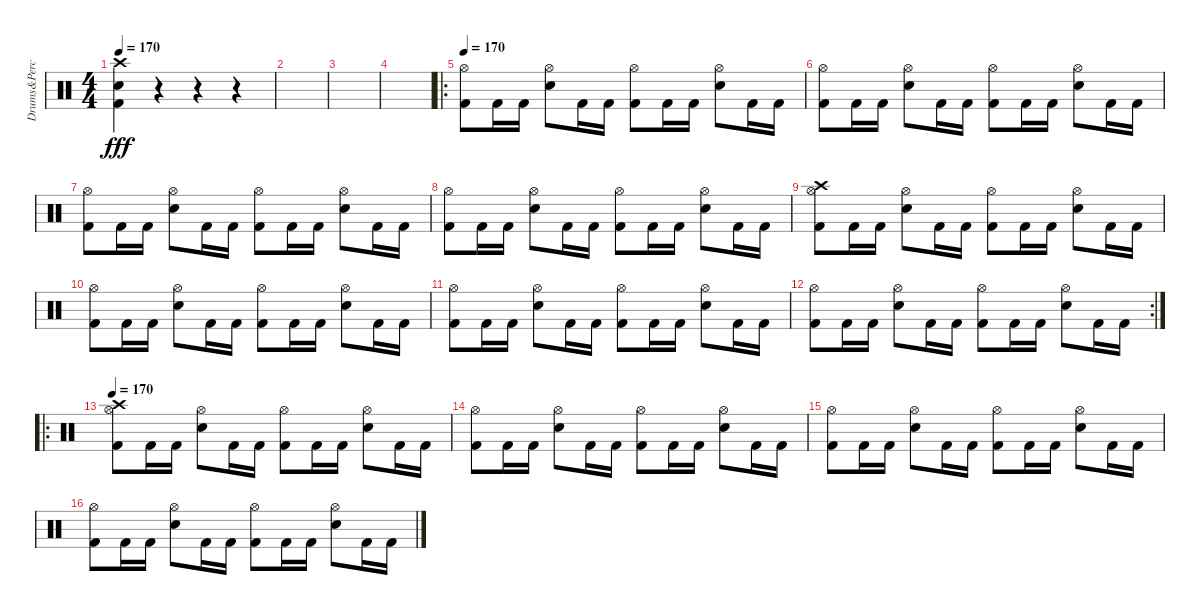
\track ("Drums&Percusion" "Drums&Perc") {instrument percussion}
\staff {score}
\articulation defaults
\ts (4 4)
\tempo 170
\clef neutral
\ks c
("Crash high (hit)" "Snare (hit) 2" "Kick (hit) 2").4{dy fff} r.4 r.4 r.4 |
|
|
|
\ro
\tempo 170
("Hi-Hat (open)" "Kick (hit) 2").8 "Kick (hit) 2".16 "Kick (hit) 2".16 ("Hi-Hat (open)" "Snare (hit) 2").8 "Kick (hit) 2".16 "Kick (hit) 2".16 ("Hi-Hat (open)" "Kick (hit) 2").8 "Kick (hit) 2".16 "Kick (hit) 2".16 ("Hi-Hat (open)" "Snare (hit) 2").8 "Kick (hit) 2".16 "Kick (hit) 2".16 |
("Hi-Hat (open)" "Kick (hit) 2").8 "Kick (hit) 2".16 "Kick (hit) 2".16 ("Hi-Hat (open)" "Snare (hit) 2").8 "Kick (hit) 2".16 "Kick (hit) 2".16 ("Hi-Hat (open)" "Kick (hit) 2").8 "Kick (hit) 2".16 "Kick (hit) 2".16 ("Hi-Hat (open)" "Snare (hit) 2").8 "Kick (hit) 2".16 "Kick (hit) 2".16 |
("Hi-Hat (open)" "Kick (hit) 2").8 "Kick (hit) 2".16 "Kick (hit) 2".16 ("Hi-Hat (open)" "Snare (hit) 2").8 "Kick (hit) 2".16 "Kick (hit) 2".16 ("Hi-Hat (open)" "Kick (hit) 2").8 "Kick (hit) 2".16 "Kick (hit) 2".16 ("Hi-Hat (open)" "Snare (hit) 2").8 "Kick (hit) 2".16 "Kick (hit) 2".16 |
("Hi-Hat (open)" "Kick (hit) 2").8 "Kick (hit) 2".16 "Kick (hit) 2".16 ("Hi-Hat (open)" "Snare (hit) 2").8 "Kick (hit) 2".16 "Kick (hit) 2".16 ("Hi-Hat (open)" "Kick (hit) 2").8 "Kick (hit) 2".16 "Kick (hit) 2".16 ("Hi-Hat (open)" "Snare (hit) 2").8 "Kick (hit) 2".16 "Kick (hit) 2".16 |
("Hi-Hat (open)" "Crash high (hit)" "Kick (hit) 2").8 "Kick (hit) 2".16 "Kick (hit) 2".16 ("Hi-Hat (open)" "Snare (hit) 2").8 "Kick (hit) 2".16 "Kick (hit) 2".16 ("Hi-Hat (open)" "Kick (hit) 2").8 "Kick (hit) 2".16 "Kick (hit) 2".16 ("Hi-Hat (open)" "Snare (hit) 2").8 "Kick (hit) 2".16 "Kick (hit) 2".16 |
("Hi-Hat (open)" "Kick (hit) 2").8 "Kick (hit) 2".16 "Kick (hit) 2".16 ("Hi-Hat (open)" "Snare (hit) 2").8 "Kick (hit) 2".16 "Kick (hit) 2".16 ("Hi-Hat (open)" "Kick (hit) 2").8 "Kick (hit) 2".16 "Kick (hit) 2".16 ("Hi-Hat (open)" "Snare (hit) 2").8 "Kick (hit) 2".16 "Kick (hit) 2".16 |
("Hi-Hat (open)" "Kick (hit) 2").8 "Kick (hit) 2".16 "Kick (hit) 2".16 ("Hi-Hat (open)" "Snare (hit) 2").8 "Kick (hit) 2".16 "Kick (hit) 2".16 ("Hi-Hat (open)" "Kick (hit) 2").8 "Kick (hit) 2".16 "Kick (hit) 2".16 ("Hi-Hat (open)" "Snare (hit) 2").8 "Kick (hit) 2".16 "Kick (hit) 2".16 |
\rc 2
("Hi-Hat (open)" "Kick (hit) 2").8 "Kick (hit) 2".16 "Kick (hit) 2".16 ("Hi-Hat (open)" "Snare (hit) 2").8 "Kick (hit) 2".16 "Kick (hit) 2".16 ("Hi-Hat (open)" "Kick (hit) 2").8 "Kick (hit) 2".16 "Kick (hit) 2".16 ("Hi-Hat (open)" "Snare (hit) 2").8 "Kick (hit) 2".16 "Kick (hit) 2".16 |
\ro
\tempo 170
("Hi-Hat (open)" "Crash high (hit)" "Kick (hit) 2").8 "Kick (hit) 2".16 "Kick (hit) 2".16 ("Hi-Hat (open)" "Snare (hit) 2").8 "Kick (hit) 2".16 "Kick (hit) 2".16 ("Hi-Hat (open)" "Kick (hit) 2").8 "Kick (hit) 2".16 "Kick (hit) 2".16 ("Hi-Hat (open)" "Snare (hit) 2").8 "Kick (hit) 2".16 "Kick (hit) 2".16 |
("Hi-Hat (open)" "Kick (hit) 2").8 "Kick (hit) 2".16 "Kick (hit) 2".16 ("Hi-Hat (open)" "Snare (hit) 2").8 "Kick (hit) 2".16 "Kick (hit) 2".16 ("Hi-Hat (open)" "Kick (hit) 2").8 "Kick (hit) 2".16 "Kick (hit) 2".16 ("Hi-Hat (open)" "Snare (hit) 2").8 "Kick (hit) 2".16 "Kick (hit) 2".16 |
("Hi-Hat (open)" "Kick (hit) 2").8 "Kick (hit) 2".16 "Kick (hit) 2".16 ("Hi-Hat (open)" "Snare (hit) 2").8 "Kick (hit) 2".16 "Kick (hit) 2".16 ("Hi-Hat (open)" "Kick (hit) 2").8 "Kick (hit) 2".16 "Kick (hit) 2".16 ("Hi-Hat (open)" "Snare (hit) 2").8 "Kick (hit) 2".16 "Kick (hit) 2".16 |
("Hi-Hat (open)" "Kick (hit) 2").8 "Kick (hit) 2".16 "Kick (hit) 2".16 ("Hi-Hat (open)" "Snare (hit) 2").8 "Kick (hit) 2".16 "Kick (hit) 2".16 ("Hi-Hat (open)" "Kick (hit) 2").8 "Kick (hit) 2".16 "Kick (hit) 2".16 ("Hi-Hat (open)" "Snare (hit) 2").8 "Kick (hit) 2".16 "Kick (hit) 2".16
